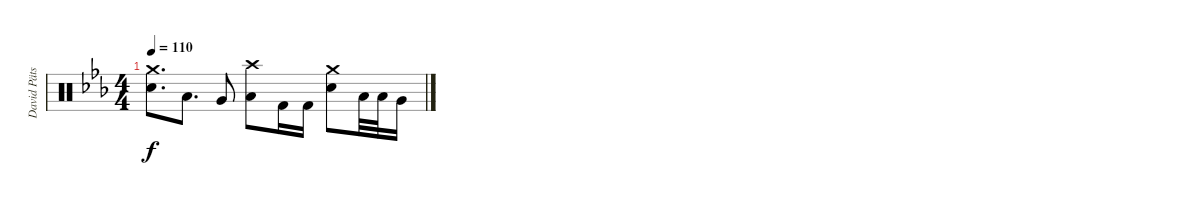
\track ("David Pätsch" "David Päts") {instrument percussion}
\staff {score}
\articulation defaults
\ts (4 4)
\tempo 110
\clef neutral
\ks cminor
("Snare (hit) 2" "Crash medium (hit)").8{d dy f} "Low Tom (hit)".8{d} "Very Low Tom (hit)".8 ("Crash high (hit)" "Low Floor Tom (hit)").8 "Kick (hit) 2".16 "Kick (hit) 2".16 ("Crash medium (hit)" "Snare (hit) 2").8 "Low Floor Tom (hit)".32 "Low Tom (hit)".32 "Very Low Tom (hit)".16
